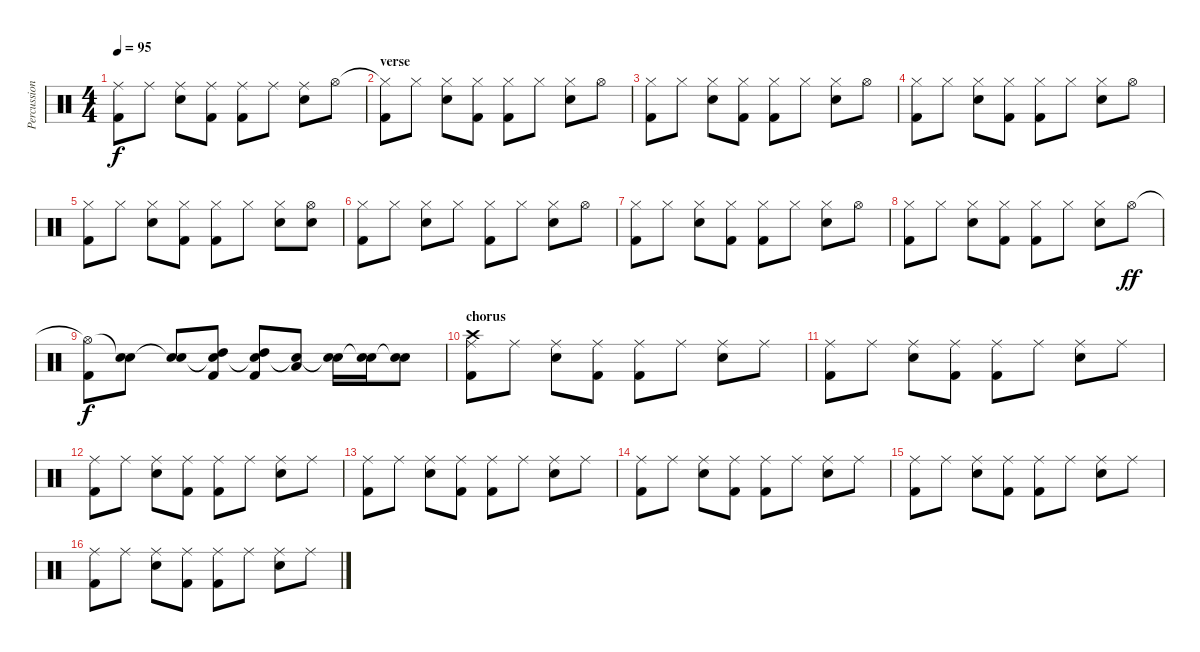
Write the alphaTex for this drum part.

\track ("Percussion" "Percussion") {instrument percussion}
\staff {score}
\articulation defaults
\ts (4 4)
\tempo 95
\clef neutral
\ks c
("Ride (middle)" "Kick (hit) 2").8{dy f} "Ride (middle)".8 ("Ride (middle)" "Snare (hit) 2").8 ("Ride (middle)" "Kick (hit) 2").8 ("Ride (middle)" "Kick (hit) 2").8 "Ride (middle)".8 ("Ride (middle)" "Snare (hit) 2").8 "Hi-Hat (open)".8 |
\section ("" "verse")
("Hi-Hat (closed)"{t} "Kick (hit) 2").8 "Hi-Hat (closed)".8 ("Hi-Hat (closed)" "Snare (hit) 2").8 ("Hi-Hat (closed)" "Kick (hit) 2").8 ("Hi-Hat (closed)" "Kick (hit) 2").8 "Hi-Hat (closed)".8 ("Hi-Hat (closed)" "Snare (hit) 2").8 "Hi-Hat (open)".8 |
("Hi-Hat (closed)" "Kick (hit) 2").8 "Hi-Hat (closed)".8 ("Hi-Hat (closed)" "Snare (hit) 2").8 ("Hi-Hat (closed)" "Kick (hit) 2").8 ("Hi-Hat (closed)" "Kick (hit) 2").8 "Hi-Hat (closed)".8 ("Hi-Hat (closed)" "Snare (hit) 2").8 "Hi-Hat (open)".8 |
("Hi-Hat (closed)" "Kick (hit) 2").8 "Hi-Hat (closed)".8 ("Hi-Hat (closed)" "Snare (hit) 2").8 ("Hi-Hat (closed)" "Kick (hit) 2").8 ("Hi-Hat (closed)" "Kick (hit) 2").8 "Hi-Hat (closed)".8 ("Hi-Hat (closed)" "Snare (hit) 2").8 "Hi-Hat (open)".8 |
("Hi-Hat (closed)" "Kick (hit) 2").8 "Hi-Hat (closed)".8 ("Hi-Hat (closed)" "Snare (hit) 2").8 ("Hi-Hat (closed)" "Kick (hit) 2").8 ("Hi-Hat (closed)" "Kick (hit) 2").8 "Hi-Hat (closed)".8 ("Hi-Hat (closed)" "Snare (hit) 2").8 ("Hi-Hat (open)" "Snare (hit) 2").8 |
("Hi-Hat (closed)" "Kick (hit) 2").8 "Hi-Hat (closed)".8 ("Hi-Hat (closed)" "Snare (hit) 2").8 "Hi-Hat (closed)".8 ("Hi-Hat (closed)" "Kick (hit) 2").8 "Hi-Hat (closed)".8 ("Hi-Hat (closed)" "Snare (hit) 2").8 "Hi-Hat (open)".8 |
("Hi-Hat (closed)" "Kick (hit) 2").8 "Hi-Hat (closed)".8 ("Hi-Hat (closed)" "Snare (hit) 2").8 ("Hi-Hat (closed)" "Kick (hit) 2").8 ("Hi-Hat (closed)" "Kick (hit) 2").8 "Hi-Hat (closed)".8 ("Hi-Hat (closed)" "Snare (hit) 2").8 "Hi-Hat (open)".8 |
("Hi-Hat (closed)" "Kick (hit) 2").8 "Hi-Hat (closed)".8 ("Hi-Hat (closed)" "Snare (hit) 2").8 ("Hi-Hat (closed)" "Kick (hit) 2").8 ("Hi-Hat (closed)" "Kick (hit) 2").8 "Hi-Hat (closed)".8 ("Hi-Hat (closed)" "Snare (hit) 2").8 "Hi-Hat (open)".8{dy ff} |
("Hi-Hat (open)"{t} "Kick (hit) 2").8{dy f} ("Snare (hit)"{t} "Snare (hit) 2").8 ("Snare (hit)"{t} "Snare (hit) 2").8 ("Snare (hit)"{t} "High Tom (hit)" "Kick (hit) 2").8 ("Snare (hit)"{t} "High Tom (hit)" "Kick (hit) 2").8 ("Snare (hit)"{t} "Low Tom (hit)").8 ("Snare (hit)"{t} "Snare (hit) 2").16 ("Snare (hit)"{t} "Snare (hit) 2").16 ("Snare (hit)"{t} "Snare (hit) 2").8 |
\section ("" "chorus")
("Ride (middle)" "Crash high (hit)" "Kick (hit) 2").8 "Ride (middle)".8 ("Ride (middle)" "Snare (hit) 2").8 ("Ride (middle)" "Kick (hit) 2").8 ("Ride (middle)" "Kick (hit) 2").8 "Ride (middle)".8 ("Ride (middle)" "Snare (hit) 2").8 "Ride (middle)".8 |
("Ride (middle)" "Kick (hit) 2").8 "Ride (middle)".8 ("Ride (middle)" "Snare (hit) 2").8 ("Ride (middle)" "Kick (hit) 2").8 ("Ride (middle)" "Kick (hit) 2").8 "Ride (middle)".8 ("Ride (middle)" "Snare (hit) 2").8 "Ride (middle)".8 |
("Ride (middle)" "Kick (hit) 2").8 "Ride (middle)".8 ("Ride (middle)" "Snare (hit) 2").8 ("Ride (middle)" "Kick (hit) 2").8 ("Ride (middle)" "Kick (hit) 2").8 "Ride (middle)".8 ("Ride (middle)" "Snare (hit) 2").8 "Ride (middle)".8 |
("Ride (middle)" "Kick (hit) 2").8 "Ride (middle)".8 ("Ride (middle)" "Snare (hit) 2").8 ("Ride (middle)" "Kick (hit) 2").8 ("Ride (middle)" "Kick (hit) 2").8 "Ride (middle)".8 ("Ride (middle)" "Snare (hit) 2").8 "Ride (middle)".8 |
("Ride (middle)" "Kick (hit) 2").8 "Ride (middle)".8 ("Ride (middle)" "Snare (hit) 2").8 ("Ride (middle)" "Kick (hit) 2").8 ("Ride (middle)" "Kick (hit) 2").8 "Ride (middle)".8 ("Ride (middle)" "Snare (hit) 2").8 "Ride (middle)".8 |
("Ride (middle)" "Kick (hit) 2").8 "Ride (middle)".8 ("Ride (middle)" "Snare (hit) 2").8 ("Ride (middle)" "Kick (hit) 2").8 ("Ride (middle)" "Kick (hit) 2").8 "Ride (middle)".8 ("Ride (middle)" "Snare (hit) 2").8 "Ride (middle)".8 |
("Ride (middle)" "Kick (hit) 2").8 "Ride (middle)".8 ("Ride (middle)" "Snare (hit) 2").8 ("Ride (middle)" "Kick (hit) 2").8 ("Ride (middle)" "Kick (hit) 2").8 "Ride (middle)".8 ("Ride (middle)" "Snare (hit) 2").8 "Ride (middle)".8
